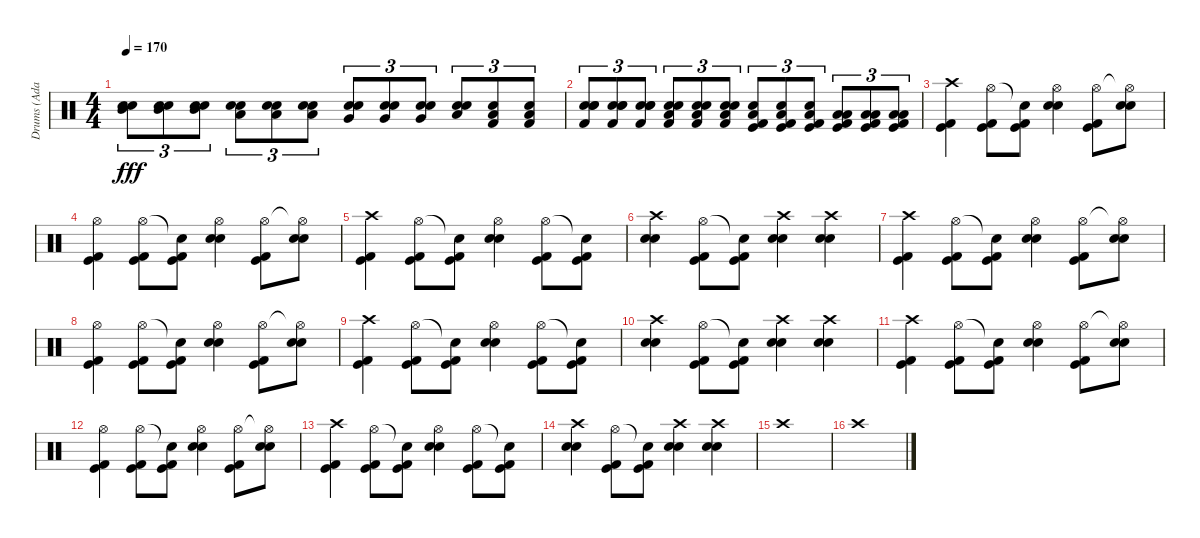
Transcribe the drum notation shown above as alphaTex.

\track ("Drums (Adam)" "Drums (Ada") {instrument percussion}
\staff {score}
\articulation defaults
\ts (4 4)
\tempo 170
\clef neutral
\ks c
("Mid Tom (hit)" "Electric Snare (hit)" "Snare (hit) 2").8{tu (3 2) dy fff} ("Mid Tom (hit)" "Electric Snare (hit)" "Snare (hit) 2").8{tu (3 2)} ("Mid Tom (hit)" "Electric Snare (hit)" "Snare (hit) 2").8{tu (3 2)} ("Low Tom (hit)" "Electric Snare (hit)" "Snare (hit) 2").8{tu (3 2)} ("Low Tom (hit)" "Electric Snare (hit)" "Snare (hit) 2").8{tu (3 2)} ("Low Tom (hit)" "Electric Snare (hit)" "Snare (hit) 2").8{tu (3 2)} ("Very Low Tom (hit)" "Electric Snare (hit)" "Snare (hit) 2").8{tu (3 2)} ("Very Low Tom (hit)" "Electric Snare (hit)" "Snare (hit) 2").8{tu (3 2)} ("Very Low Tom (hit)" "Electric Snare (hit)" "Snare (hit) 2").8{tu (3 2)} ("Low Floor Tom (hit)" "Electric Snare (hit)" "Snare (hit) 2").8{tu (3 2)} ("Low Floor Tom (hit)" "Electric Snare (hit)" "Kick (hit) 2").8{tu (3 2)} ("Low Floor Tom (hit)" "Electric Snare (hit)" "Kick (hit) 2").8{tu (3 2)} |
("Electric Snare (hit)" "Snare (hit) 2" "Electric Snare (hit)" "Kick (hit) 2").8{tu (3 2)} ("Electric Snare (hit)" "Snare (hit) 2" "Electric Snare (hit)" "Kick (hit) 2").8{tu (3 2)} ("Electric Snare (hit)" "Snare (hit) 2" "Electric Snare (hit)" "Kick (hit) 2").8{tu (3 2)} ("Snare (hit) 2" "Electric Snare (hit)" "Low Tom (hit)" "Kick (hit) 2").8{tu (3 2)} ("Snare (hit) 2" "Electric Snare (hit)" "Low Tom (hit)" "Kick (hit) 2").8{tu (3 2)} ("Snare (hit) 2" "Electric Snare (hit)" "Low Tom (hit)" "Kick (hit) 2").8{tu (3 2)} ("Low Floor Tom (hit)" "Electric Snare (hit)" "Kick (hit)" "Kick (hit) 2").8{tu (3 2)} ("Low Floor Tom (hit)" "Electric Snare (hit)" "Kick (hit)" "Kick (hit) 2").8{tu (3 2)} ("Low Floor Tom (hit)" "Electric Snare (hit)" "Kick (hit)" "Kick (hit) 2").8{tu (3 2)} ("Low Floor Tom (hit)" "Low Tom (hit)" "Kick (hit)" "Kick (hit) 2").8{tu (3 2)} ("Low Floor Tom (hit)" "Low Tom (hit)" "Kick (hit)" "Kick (hit) 2").8{tu (3 2)} ("Low Floor Tom (hit)" "Low Tom (hit)" "Kick (hit)" "Kick (hit) 2").8{tu (3 2)} |
("Crash high (hit)" "Kick (hit)" "Kick (hit) 2").4 ("Hi-Hat (open)" "Kick (hit)" "Kick (hit) 2").8 ("Snare (hit)"{t} "Kick (hit)" "Kick (hit) 2").8 ("Hi-Hat (open)" "Snare (hit) 2" "Electric Snare (hit)").4 ("Hi-Hat (open)" "Kick (hit)" "Kick (hit) 2").8 ("Hi-Hat (open)"{t} "Snare (hit) 2" "Electric Snare (hit)").8 |
("Hi-Hat (open)" "Kick (hit)" "Kick (hit) 2").4 ("Hi-Hat (open)" "Kick (hit)" "Kick (hit) 2").8 ("Snare (hit)"{t} "Kick (hit)" "Kick (hit) 2").8 ("Hi-Hat (open)" "Snare (hit) 2" "Electric Snare (hit)").4 ("Hi-Hat (open)" "Kick (hit)" "Kick (hit) 2").8 ("Hi-Hat (open)"{t} "Snare (hit) 2" "Electric Snare (hit)").8 |
("Crash high (hit)" "Kick (hit)" "Kick (hit) 2").4 ("Hi-Hat (open)" "Kick (hit)" "Kick (hit) 2").8 ("Snare (hit)"{t} "Kick (hit)" "Kick (hit) 2").8 ("Hi-Hat (open)" "Snare (hit) 2" "Electric Snare (hit)").4 ("Hi-Hat (open)" "Kick (hit)" "Kick (hit) 2").8 ("Snare (hit)"{t} "Kick (hit)" "Kick (hit) 2").8 |
("Crash high (hit)" "Snare (hit) 2" "Electric Snare (hit)").4 ("Hi-Hat (open)" "Kick (hit)" "Kick (hit) 2").8 ("Snare (hit)"{t} "Kick (hit)" "Kick (hit) 2").8 ("Crash high (hit)" "Snare (hit) 2" "Electric Snare (hit)").4 ("Crash high (hit)" "Snare (hit) 2" "Electric Snare (hit)").4 |
("Crash high (hit)" "Kick (hit)" "Kick (hit) 2").4 ("Hi-Hat (open)" "Kick (hit)" "Kick (hit) 2").8 ("Snare (hit)"{t} "Kick (hit)" "Kick (hit) 2").8 ("Hi-Hat (open)" "Snare (hit) 2" "Electric Snare (hit)").4 ("Hi-Hat (open)" "Kick (hit)" "Kick (hit) 2").8 ("Hi-Hat (open)"{t} "Snare (hit) 2" "Electric Snare (hit)").8 |
("Hi-Hat (open)" "Kick (hit)" "Kick (hit) 2").4 ("Hi-Hat (open)" "Kick (hit)" "Kick (hit) 2").8 ("Snare (hit)"{t} "Kick (hit)" "Kick (hit) 2").8 ("Hi-Hat (open)" "Snare (hit) 2" "Electric Snare (hit)").4 ("Hi-Hat (open)" "Kick (hit)" "Kick (hit) 2").8 ("Hi-Hat (open)"{t} "Snare (hit) 2" "Electric Snare (hit)").8 |
("Crash high (hit)" "Kick (hit)" "Kick (hit) 2").4 ("Hi-Hat (open)" "Kick (hit)" "Kick (hit) 2").8 ("Snare (hit)"{t} "Kick (hit)" "Kick (hit) 2").8 ("Hi-Hat (open)" "Snare (hit) 2" "Electric Snare (hit)").4 ("Hi-Hat (open)" "Kick (hit)" "Kick (hit) 2").8 ("Snare (hit)"{t} "Kick (hit)" "Kick (hit) 2").8 |
("Crash high (hit)" "Snare (hit) 2" "Electric Snare (hit)").4 ("Hi-Hat (open)" "Kick (hit)" "Kick (hit) 2").8 ("Snare (hit)"{t} "Kick (hit)" "Kick (hit) 2").8 ("Crash high (hit)" "Snare (hit) 2" "Electric Snare (hit)").4 ("Crash high (hit)" "Snare (hit) 2" "Electric Snare (hit)").4 |
("Crash high (hit)" "Kick (hit)" "Kick (hit) 2").4 ("Hi-Hat (open)" "Kick (hit)" "Kick (hit) 2").8 ("Snare (hit)"{t} "Kick (hit)" "Kick (hit) 2").8 ("Hi-Hat (open)" "Snare (hit) 2" "Electric Snare (hit)").4 ("Hi-Hat (open)" "Kick (hit)" "Kick (hit) 2").8 ("Hi-Hat (open)"{t} "Snare (hit) 2" "Electric Snare (hit)").8 |
("Hi-Hat (open)" "Kick (hit)" "Kick (hit) 2").4 ("Hi-Hat (open)" "Kick (hit)" "Kick (hit) 2").8 ("Snare (hit)"{t} "Kick (hit)" "Kick (hit) 2").8 ("Hi-Hat (open)" "Snare (hit) 2" "Electric Snare (hit)").4 ("Hi-Hat (open)" "Kick (hit)" "Kick (hit) 2").8 ("Hi-Hat (open)"{t} "Snare (hit) 2" "Electric Snare (hit)").8 |
("Crash high (hit)" "Kick (hit)" "Kick (hit) 2").4 ("Hi-Hat (open)" "Kick (hit)" "Kick (hit) 2").8 ("Snare (hit)"{t} "Kick (hit)" "Kick (hit) 2").8 ("Hi-Hat (open)" "Snare (hit) 2" "Electric Snare (hit)").4 ("Hi-Hat (open)" "Kick (hit)" "Kick (hit) 2").8 ("Snare (hit)"{t} "Kick (hit)" "Kick (hit) 2").8 |
("Crash high (hit)" "Snare (hit) 2" "Electric Snare (hit)").4 ("Hi-Hat (open)" "Kick (hit)" "Kick (hit) 2").8 ("Snare (hit)"{t} "Kick (hit)" "Kick (hit) 2").8 ("Crash high (hit)" "Snare (hit) 2" "Electric Snare (hit)").4 ("Crash high (hit)" "Snare (hit) 2" "Electric Snare (hit)").4 |
"Crash high (hit)".1 |
"Crash high (hit)".1
